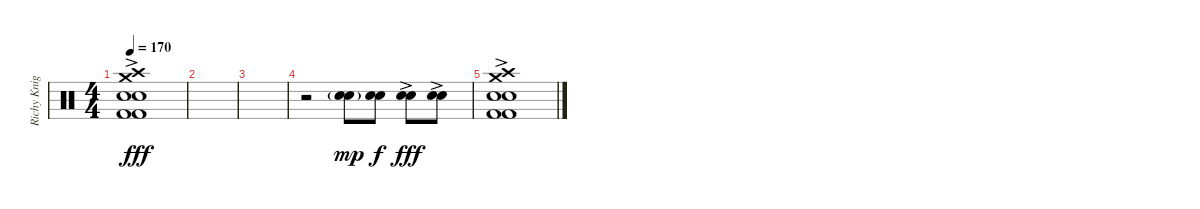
\track ("Richy Knight (Drums)" "Richy Knig") {instrument percussion}
\staff {score}
\articulation defaults
\ts (4 4)
\tempo 170
\clef neutral
\ks c
("Crash high (hit)"{ac} "Crash medium (hit)"{ac} "Electric Snare (hit)"{ac} "Electric Snare (hit)"{ac} "Kick (hit) 2"{ac} "Kick (hit) 2"{ac}).1{dy fff} |
|
|
r.2 ("Electric Snare (hit)"{g} "Electric Snare (hit)"{g}).8{dy mp} ("Electric Snare (hit)" "Electric Snare (hit)").8{dy f} ("Electric Snare (hit)"{ac} "Electric Snare (hit)").8{dy fff} ("Electric Snare (hit)"{ac} "Electric Snare (hit)"{ac}).8 |
("Crash high (hit)"{ac} "Crash medium (hit)"{ac} "Electric Snare (hit)"{ac} "Electric Snare (hit)"{ac} "Kick (hit) 2"{ac} "Kick (hit) 2"{ac}).1
